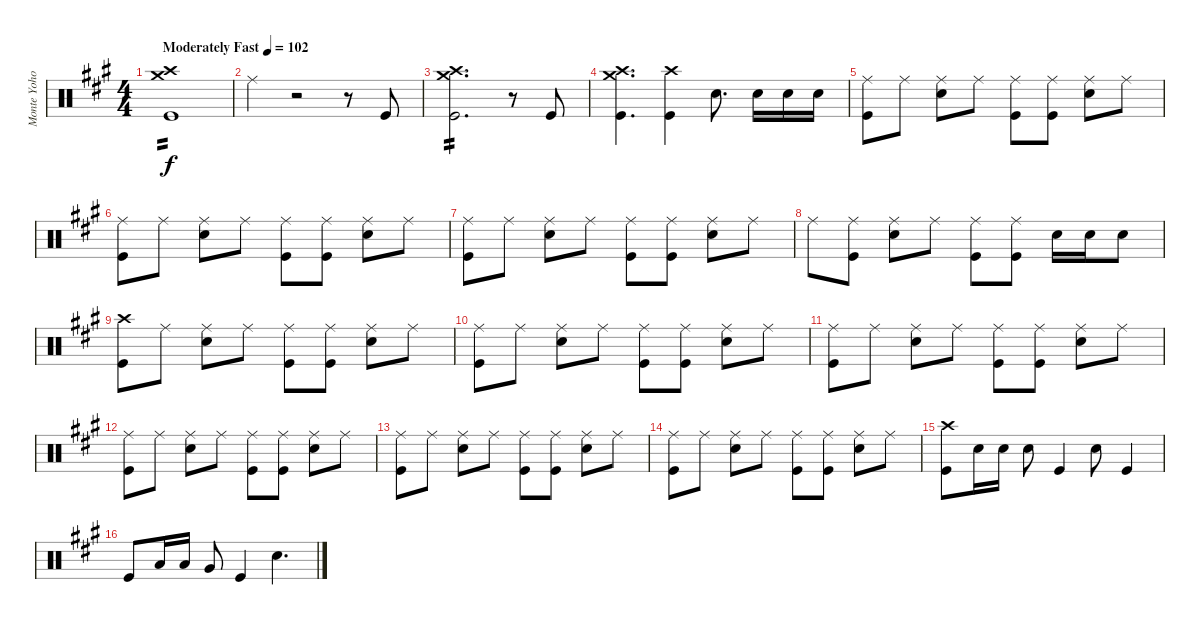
\track ("Monte Yoho Drums" "Monte Yoho") {instrument percussion}
\staff {score}
\articulation defaults
\ts (4 4)
\tempo (102 "Moderately Fast")
\clef neutral
\ks a
("Crash high (hit)" "Crash medium (hit)" "Kick (hit)").1{tp 2 dy f} |
"Ride (middle)".4 r.2 r.8 "Kick (hit)".8 |
("Crash high (hit)" "Crash medium (hit)" "Kick (hit)").2{d tp 2} r.8 "Kick (hit)".8 |
("Crash high (hit)" "Crash medium (hit)" "Kick (hit)").4{d} ("Crash high (hit)" "Kick (hit)").4 "Snare (hit) 2".8{d} "Snare (hit) 2".16 "Snare (hit) 2".16 "Snare (hit) 2".16 |
("Ride (middle)" "Kick (hit)").8 "Ride (middle)".8 ("Ride (middle)" "Snare (hit) 2").8 "Ride (middle)".8 ("Ride (middle)" "Kick (hit)").8 ("Ride (middle)" "Kick (hit)").8 ("Ride (middle)" "Snare (hit) 2").8 "Ride (middle)".8 |
("Ride (middle)" "Kick (hit)").8 "Ride (middle)".8 ("Ride (middle)" "Snare (hit) 2").8 "Ride (middle)".8 ("Ride (middle)" "Kick (hit)").8 ("Ride (middle)" "Kick (hit)").8 ("Ride (middle)" "Snare (hit) 2").8 "Ride (middle)".8 |
("Ride (middle)" "Kick (hit)").8 "Ride (middle)".8 ("Ride (middle)" "Snare (hit) 2").8 "Ride (middle)".8 ("Ride (middle)" "Kick (hit)").8 ("Ride (middle)" "Kick (hit)").8 ("Ride (middle)" "Snare (hit) 2").8 "Ride (middle)".8 |
"Ride (middle)".8 ("Ride (middle)" "Kick (hit)").8 ("Ride (middle)" "Snare (hit) 2").8 "Ride (middle)".8 ("Ride (middle)" "Kick (hit)").8 ("Ride (middle)" "Kick (hit)").8 "Snare (hit) 2".16 "Snare (hit) 2".16 "Snare (hit) 2".8 |
("Crash high (hit)" "Kick (hit)").8 "Ride (middle)".8 ("Ride (middle)" "Snare (hit) 2").8 "Ride (middle)".8 ("Ride (middle)" "Kick (hit)").8 ("Ride (middle)" "Kick (hit)").8 ("Ride (middle)" "Snare (hit) 2").8 "Ride (middle)".8 |
("Ride (middle)" "Kick (hit)").8 "Ride (middle)".8 ("Ride (middle)" "Snare (hit) 2").8 "Ride (middle)".8 ("Ride (middle)" "Kick (hit)").8 ("Ride (middle)" "Kick (hit)").8 ("Ride (middle)" "Snare (hit) 2").8 "Ride (middle)".8 |
("Ride (middle)" "Kick (hit)").8 "Ride (middle)".8 ("Ride (middle)" "Snare (hit) 2").8 "Ride (middle)".8 ("Ride (middle)" "Kick (hit)").8 ("Ride (middle)" "Kick (hit)").8 ("Ride (middle)" "Snare (hit) 2").8 "Ride (middle)".8 |
("Ride (middle)" "Kick (hit)").8 "Ride (middle)".8 ("Ride (middle)" "Snare (hit) 2").8 "Ride (middle)".8 ("Ride (middle)" "Kick (hit)").8 ("Ride (middle)" "Kick (hit)").8 ("Ride (middle)" "Snare (hit) 2").8 "Ride (middle)".8 |
("Ride (middle)" "Kick (hit)").8 "Ride (middle)".8 ("Ride (middle)" "Snare (hit) 2").8 "Ride (middle)".8 ("Ride (middle)" "Kick (hit)").8 ("Ride (middle)" "Kick (hit)").8 ("Ride (middle)" "Snare (hit) 2").8 "Ride (middle)".8 |
("Ride (middle)" "Kick (hit)").8 "Ride (middle)".8 ("Ride (middle)" "Snare (hit) 2").8 "Ride (middle)".8 ("Ride (middle)" "Kick (hit)").8 ("Ride (middle)" "Kick (hit)").8 ("Ride (middle)" "Snare (hit) 2").8 "Ride (middle)".8 |
("Crash high (hit)" "Kick (hit)").8 "Snare (hit) 2".16 "Snare (hit) 2".16 "Snare (hit) 2".8 "Kick (hit)".4 "Snare (hit) 2".8 "Kick (hit)".4 |
"Kick (hit)".8 "Low Tom (hit)".16 "Low Tom (hit)".16 "Very Low Tom (hit)".8 "Kick (hit)".4 "Snare (hit) 2".4{d}
